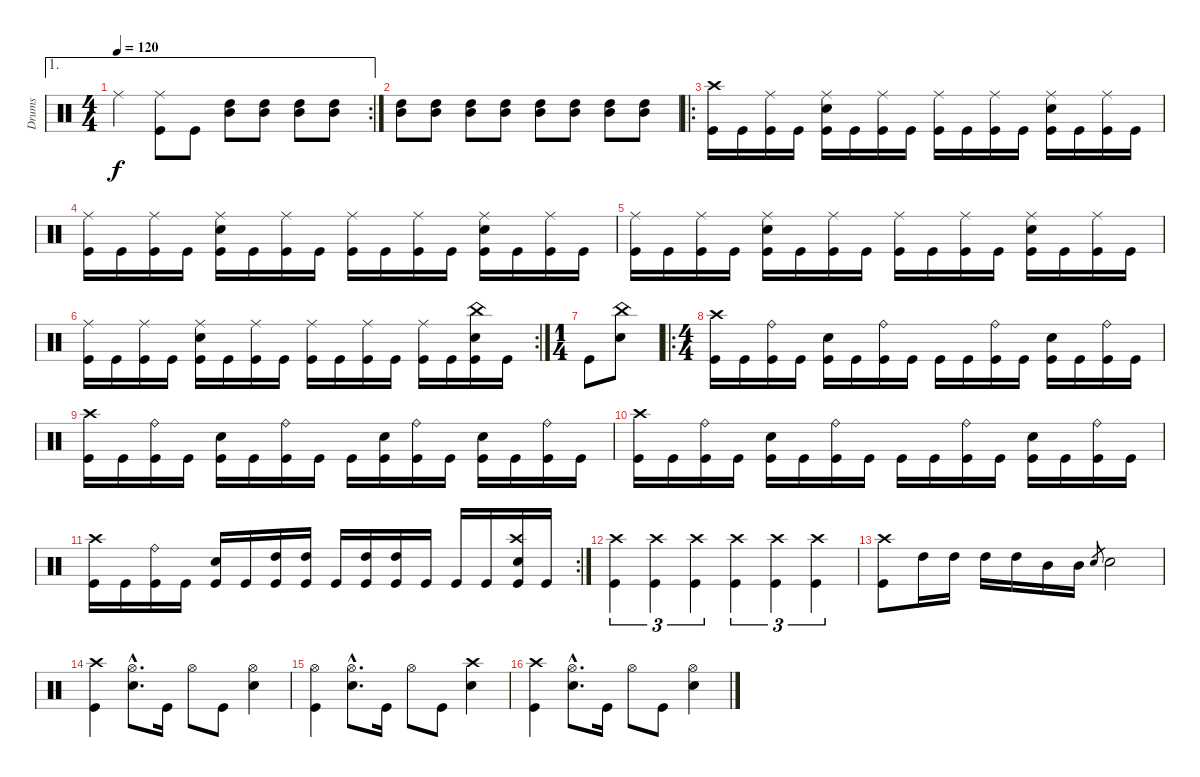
\track ("Drums" "Drums") {instrument percussion}
\staff {score}
\articulation defaults
\ae 1
\rc 2
\ts (4 4)
\tempo 120
\clef neutral
\ks c "Ride (middle)".4{dy f}
("Ride (middle)" "Kick (hit)").8 "Kick (hit)".8 ("High Tom (hit)" "Mid Tom (hit)").8 ("High Tom (hit)" "Mid Tom (hit)").8 ("High Tom (hit)" "Mid Tom (hit)").8 ("High Tom (hit)" "Mid Tom (hit)").8 |
("High Tom (hit)" "Mid Tom (hit)").8 ("High Tom (hit)" "Mid Tom (hit)").8 ("High Tom (hit)" "Mid Tom (hit)").8 ("High Tom (hit)" "Mid Tom (hit)").8 ("High Tom (hit)" "Mid Tom (hit)").8 ("High Tom (hit)" "Mid Tom (hit)").8 ("High Tom (hit)" "Mid Tom (hit)").8 ("High Tom (hit)" "Mid Tom (hit)").8 |
\ro
("Crash high (hit)" "Kick (hit)").16 "Kick (hit)".16 ("Ride (middle)" "Kick (hit)").16 "Kick (hit)".16 ("Ride (middle)" "Electric Snare (hit)" "Kick (hit)").16 "Kick (hit)".16 ("Ride (middle)" "Kick (hit)").16 "Kick (hit)".16 ("Ride (middle)" "Kick (hit)").16 "Kick (hit)".16 ("Ride (middle)" "Kick (hit)").16 "Kick (hit)".16 ("Ride (middle)" "Electric Snare (hit)" "Kick (hit)").16 "Kick (hit)".16 ("Ride (middle)" "Kick (hit)").16 "Kick (hit)".16 |
("Ride (middle)" "Kick (hit)").16 "Kick (hit)".16 ("Ride (middle)" "Kick (hit)").16 "Kick (hit)".16 ("Ride (middle)" "Electric Snare (hit)" "Kick (hit)").16 "Kick (hit)".16 ("Ride (middle)" "Kick (hit)").16 "Kick (hit)".16 ("Ride (middle)" "Kick (hit)").16 "Kick (hit)".16 ("Ride (middle)" "Kick (hit)").16 "Kick (hit)".16 ("Ride (middle)" "Electric Snare (hit)" "Kick (hit)").16 "Kick (hit)".16 ("Ride (middle)" "Kick (hit)").16 "Kick (hit)".16 |
("Ride (middle)" "Kick (hit)").16 "Kick (hit)".16 ("Ride (middle)" "Kick (hit)").16 "Kick (hit)".16 ("Ride (middle)" "Electric Snare (hit)" "Kick (hit)").16 "Kick (hit)".16 ("Ride (middle)" "Kick (hit)").16 "Kick (hit)".16 ("Ride (middle)" "Kick (hit)").16 "Kick (hit)".16 ("Ride (middle)" "Kick (hit)").16 "Kick (hit)".16 ("Ride (middle)" "Electric Snare (hit)" "Kick (hit)").16 "Kick (hit)".16 ("Ride (middle)" "Kick (hit)").16 "Kick (hit)".16 |
\rc 2
("Ride (middle)" "Kick (hit)").16 "Kick (hit)".16 ("Ride (middle)" "Kick (hit)").16 "Kick (hit)".16 ("Ride (middle)" "Electric Snare (hit)" "Kick (hit)").16 "Kick (hit)".16 ("Ride (middle)" "Kick (hit)").16 "Kick (hit)".16 ("Ride (middle)" "Kick (hit)").16 "Kick (hit)".16 ("Ride (middle)" "Kick (hit)").16 "Kick (hit)".16 ("Ride (middle)" "Kick (hit)").16 "Kick (hit)".16 ("China (hit)" "Electric Snare (hit)" "Kick (hit)").16 "Kick (hit)".16 |
\ts (1 4)
"Kick (hit)".8 ("China (hit)" "Electric Snare (hit)").8 |
\ro
\ts (4 4)
("Crash high (hit)" "Kick (hit)").16 "Kick (hit)".16 ("Ride (bell)" "Kick (hit)").16 "Kick (hit)".16 ("Electric Snare (hit)" "Kick (hit)").16 "Kick (hit)".16 ("Ride (bell)" "Kick (hit)").16 "Kick (hit)".16 "Kick (hit)".16 "Kick (hit)".16 ("Ride (bell)" "Kick (hit)").16 "Kick (hit)".16 ("Electric Snare (hit)" "Kick (hit)").16 "Kick (hit)".16 ("Ride (bell)" "Kick (hit)").16 "Kick (hit)".16 |
("Crash high (hit)" "Kick (hit)").16 "Kick (hit)".16 ("Ride (bell)" "Kick (hit)").16 "Kick (hit)".16 ("Electric Snare (hit)" "Kick (hit)").16 "Kick (hit)".16 ("Ride (bell)" "Kick (hit)").16 "Kick (hit)".16 "Kick (hit)".16 ("Electric Snare (hit)" "Kick (hit)").16 ("Ride (bell)" "Kick (hit)").16 "Kick (hit)".16 ("Electric Snare (hit)" "Kick (hit)").16 "Kick (hit)".16 ("Ride (bell)" "Kick (hit)").16 "Kick (hit)".16 |
("Crash high (hit)" "Kick (hit)").16 "Kick (hit)".16 ("Ride (bell)" "Kick (hit)").16 "Kick (hit)".16 ("Electric Snare (hit)" "Kick (hit)").16 "Kick (hit)".16 ("Ride (bell)" "Kick (hit)").16 "Kick (hit)".16 "Kick (hit)".16 "Kick (hit)".16 ("Ride (bell)" "Kick (hit)").16 "Kick (hit)".16 ("Electric Snare (hit)" "Kick (hit)").16 "Kick (hit)".16 ("Ride (bell)" "Kick (hit)").16 "Kick (hit)".16 |
\rc 2
("Crash high (hit)" "Kick (hit)").16 "Kick (hit)".16 ("Ride (bell)" "Kick (hit)").16 "Kick (hit)".16 ("Electric Snare (hit)" "Kick (hit)").16 "Kick (hit)".16 ("High Tom (hit)" "Kick (hit)").16 ("High Tom (hit)" "Kick (hit)").16 "Kick (hit)".16 ("High Tom (hit)" "Kick (hit)").16 ("High Tom (hit)" "Kick (hit)").16 "Kick (hit)".16 "Kick (hit)".16 "Kick (hit)".16 ("Crash high (hit)" "Electric Snare (hit)" "Kick (hit)").16 "Kick (hit)".16 |
("Crash high (hit)" "Kick (hit)").4{tu (3 2)} ("Crash high (hit)" "Kick (hit)").4{tu (3 2)} ("Crash high (hit)" "Kick (hit)").4{tu (3 2)} ("Crash high (hit)" "Kick (hit)").4{tu (3 2)} ("Crash high (hit)" "Kick (hit)").4{tu (3 2)} ("Crash high (hit)" "Kick (hit)").4{tu (3 2)} |
("Crash high (hit)" "Kick (hit)").8 "High Tom (hit)".16 "High Tom (hit)".16 "High Tom (hit)".16 "High Tom (hit)".16 "Mid Tom (hit)".16 "Mid Tom (hit)".16 "Electric Snare (hit)".8{gr} "Electric Snare (hit)".2 |
("Crash high (hit)" "Kick (hit)").4 ("Hi-Hat (open)"{hac} "Electric Snare (hit)"{hac}).8{d} "Kick (hit)".16 "Hi-Hat (open)".8 "Kick (hit)".8 ("Hi-Hat (open)" "Electric Snare (hit)").4 |
("Hi-Hat (open)" "Kick (hit)").4 ("Hi-Hat (open)"{hac} "Electric Snare (hit)"{hac}).8{d} "Kick (hit)".16 "Hi-Hat (open)".8 "Kick (hit)".8 ("Crash high (hit)" "Electric Snare (hit)").4 |
("Crash high (hit)" "Kick (hit)").4 ("Hi-Hat (open)"{hac} "Electric Snare (hit)"{hac}).8{d} "Kick (hit)".16 "Hi-Hat (open)".8 "Kick (hit)".8 ("Hi-Hat (open)" "Electric Snare (hit)").4
